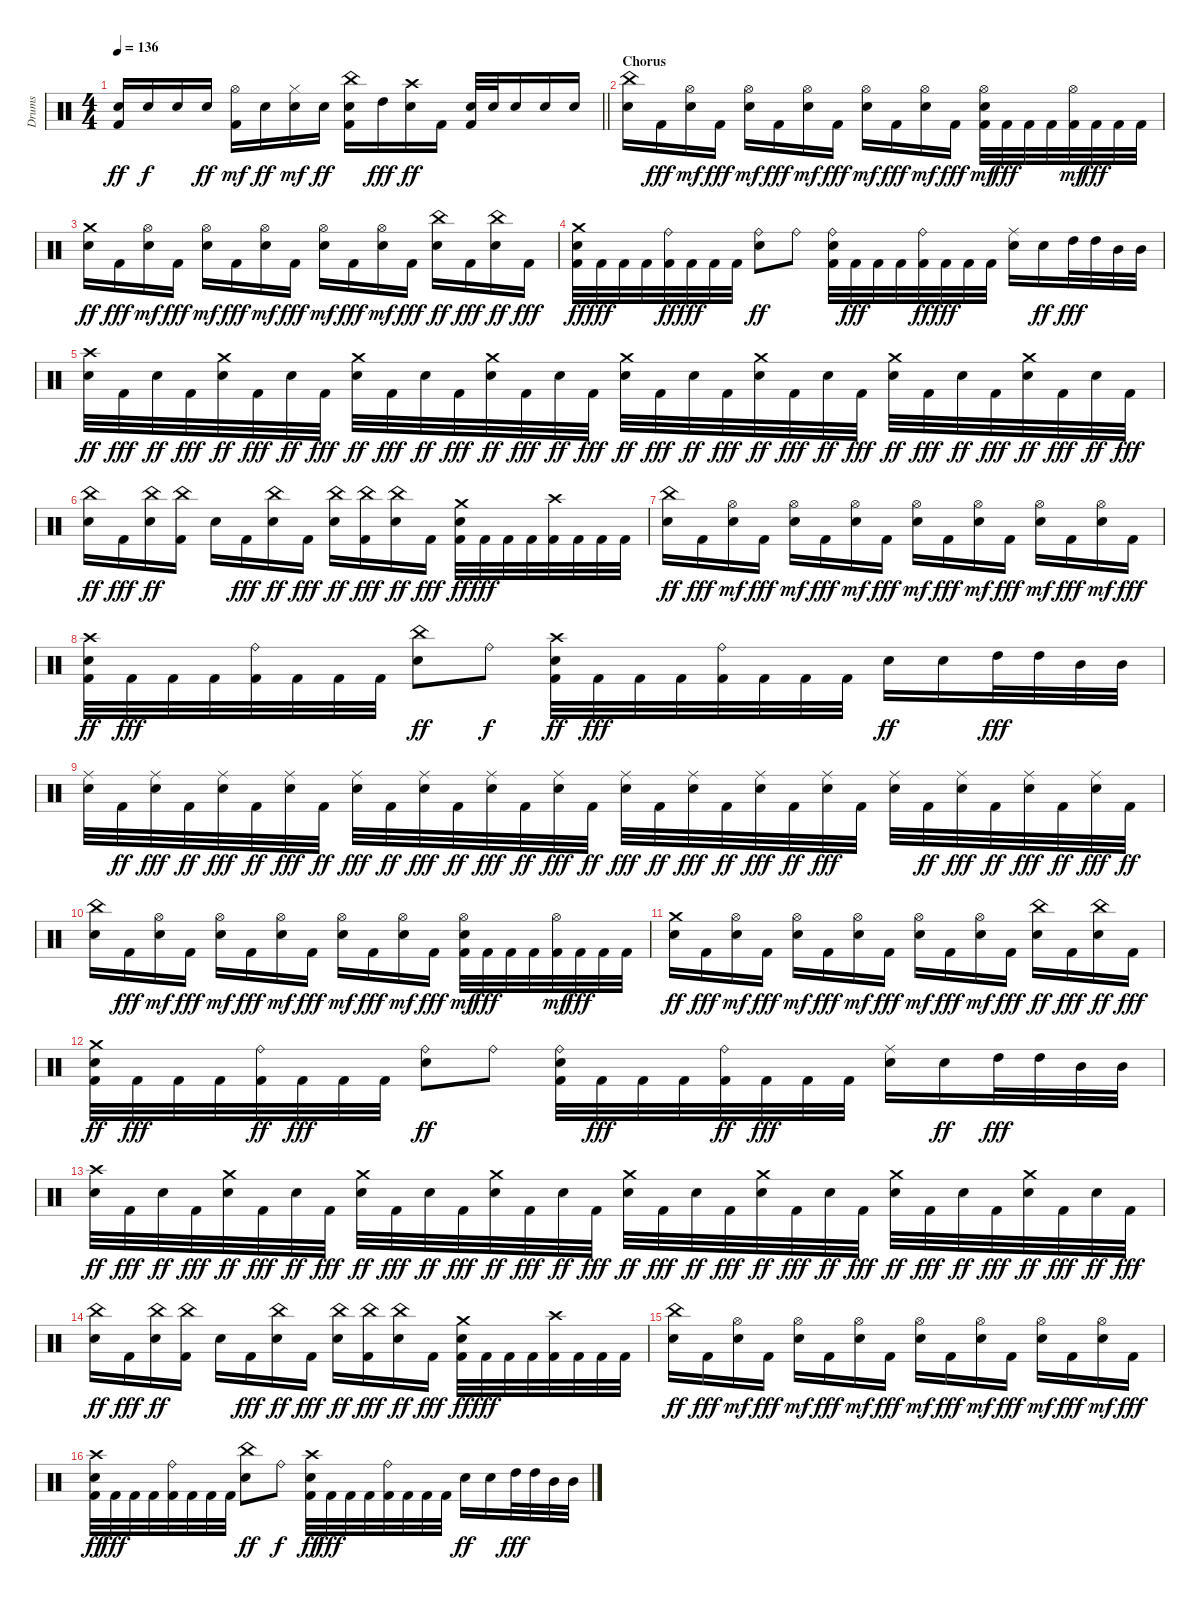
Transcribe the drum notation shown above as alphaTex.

\track ("Drums" "Drums") {instrument percussion}
\staff {score}
\articulation defaults
\ts (4 4)
\tempo 136
\clef neutral
\barLineRight lightlight
\ks c
("Kick (hit) 2" "Snare (hit) 2").16{dy ff} "Snare (hit) 2".16{dy f} "Snare (hit) 2".16 "Snare (hit) 2".16{dy ff} ("Kick (hit) 2" "Hi-Hat (open)").16{dy mf} "Snare (hit) 2".16{dy ff} ("Snare (hit) 2" "Hi-Hat (closed)").16{dy mf} "Snare (hit) 2".16{dy ff} ("Kick (hit) 2" "Snare (hit) 2" "China (hit)").16 "High Tom (hit)".16{dy fff} ("Snare (hit) 2" "Crash high (hit)").16{dy ff} "Kick (hit) 2".16 ("Kick (hit) 2" "Snare (hit) 2").32 "Snare (hit) 2".32 "Snare (hit) 2".16 "Snare (hit) 2".16 "Snare (hit) 2".16 |
\section ("" "Chorus")
("Snare (hit) 2" "China (hit)").16 "Kick (hit) 2".16{dy fff} ("Snare (hit) 2" "Hi-Hat (open)").16{dy mf} "Kick (hit) 2".16{dy fff} ("Snare (hit) 2" "Hi-Hat (open)").16{dy mf} "Kick (hit) 2".16{dy fff} ("Snare (hit) 2" "Hi-Hat (open)").16{dy mf} "Kick (hit) 2".16{dy fff} ("Snare (hit) 2" "Hi-Hat (open)").16{dy mf} "Kick (hit) 2".16{dy fff} ("Snare (hit) 2" "Hi-Hat (open)").16{dy mf} "Kick (hit) 2".16{dy fff} ("Kick (hit) 2" "Snare (hit) 2" "Hi-Hat (open)").32{dy mf} "Kick (hit) 2".32{dy fff} "Kick (hit) 2".32 "Kick (hit) 2".32 ("Kick (hit) 2" "Hi-Hat (open)").32{dy mf} "Kick (hit) 2".32{dy fff} "Kick (hit) 2".32 "Kick (hit) 2".32 |
("Snare (hit) 2" "Crash medium (hit)").16{dy ff} "Kick (hit) 2".16{dy fff} ("Snare (hit) 2" "Hi-Hat (open)").16{dy mf} "Kick (hit) 2".16{dy fff} ("Snare (hit) 2" "Hi-Hat (open)").16{dy mf} "Kick (hit) 2".16{dy fff} ("Snare (hit) 2" "Hi-Hat (open)").16{dy mf} "Kick (hit) 2".16{dy fff} ("Snare (hit) 2" "Hi-Hat (open)").16{dy mf} "Kick (hit) 2".16{dy fff} ("Snare (hit) 2" "Hi-Hat (open)").16{dy mf} "Kick (hit) 2".16{dy fff} ("Snare (hit) 2" "China (hit)").16{dy ff} "Kick (hit) 2".16{dy fff} ("Snare (hit) 2" "China (hit)").16{dy ff} "Kick (hit) 2".16{dy fff} |
("Kick (hit) 2" "Snare (hit) 2" "Crash medium (hit)").32{dy ff} "Kick (hit) 2".32{dy fff} "Kick (hit) 2".32 "Kick (hit) 2".32 ("Kick (hit) 2" "Ride (bell)").32{dy ff} "Kick (hit) 2".32{dy fff} "Kick (hit) 2".32 "Kick (hit) 2".32 ("Snare (hit) 2" "Ride (bell)").8{dy ff} "Ride (bell)".8 ("Kick (hit) 2" "Snare (hit) 2" "Ride (bell)").32 "Kick (hit) 2".32{dy fff} "Kick (hit) 2".32 "Kick (hit) 2".32 ("Kick (hit) 2" "Ride (bell)").32{dy ff} "Kick (hit) 2".32{dy fff} "Kick (hit) 2".32 "Kick (hit) 2".32 ("Snare (hit) 2" "Ride (middle)").16 "Snare (hit) 2".16{dy ff} "High Tom (hit)".32{dy fff} "High Tom (hit)".32 "Mid Tom (hit)".32 "Mid Tom (hit)".32 |
("Snare (hit) 2" "Crash high (hit)").32{dy ff} "Kick (hit) 2".32{dy fff} "Snare (hit) 2".32{dy ff} "Kick (hit) 2".32{dy fff} ("Snare (hit) 2" "Crash medium (hit)").32{dy ff} "Kick (hit) 2".32{dy fff} "Snare (hit) 2".32{dy ff} "Kick (hit) 2".32{dy fff} ("Snare (hit) 2" "Crash medium (hit)").32{dy ff} "Kick (hit) 2".32{dy fff} "Snare (hit) 2".32{dy ff} "Kick (hit) 2".32{dy fff} ("Snare (hit) 2" "Crash medium (hit)").32{dy ff} "Kick (hit) 2".32{dy fff} "Snare (hit) 2".32{dy ff} "Kick (hit) 2".32{dy fff} ("Snare (hit) 2" "Crash medium (hit)").32{dy ff} "Kick (hit) 2".32{dy fff} "Snare (hit) 2".32{dy ff} "Kick (hit) 2".32{dy fff} ("Snare (hit) 2" "Crash medium (hit)").32{dy ff} "Kick (hit) 2".32{dy fff} "Snare (hit) 2".32{dy ff} "Kick (hit) 2".32{dy fff} ("Snare (hit) 2" "Crash medium (hit)").32{dy ff} "Kick (hit) 2".32{dy fff} "Snare (hit) 2".32{dy ff} "Kick (hit) 2".32{dy fff} ("Snare (hit) 2" "Crash medium (hit)").32{dy ff} "Kick (hit) 2".32{dy fff} "Snare (hit) 2".32{dy ff} "Kick (hit) 2".32{dy fff} |
("Snare (hit) 2" "China (hit)").16{dy ff} "Kick (hit) 2".16{dy fff} ("Snare (hit) 2" "China (hit)").16{dy ff} ("Kick (hit) 2" "China (hit)").16 "Snare (hit) 2".16 "Kick (hit) 2".16{dy fff} ("Snare (hit) 2" "China (hit)").16{dy ff} "Kick (hit) 2".16{dy fff} ("Snare (hit) 2" "China (hit)").16{dy ff} ("Kick (hit) 2" "China (hit)").16{dy fff} ("Snare (hit) 2" "China (hit)").16{dy ff} "Kick (hit) 2".16{dy fff} ("Kick (hit) 2" "Snare (hit) 2" "Crash medium (hit)").32{dy ff} "Kick (hit) 2".32{dy fff} "Kick (hit) 2".32 "Kick (hit) 2".32 ("Kick (hit) 2" "Crash high (hit)").32 "Kick (hit) 2".32 "Kick (hit) 2".32 "Kick (hit) 2".32 |
("Snare (hit) 2" "China (hit)").16{dy ff} "Kick (hit) 2".16{dy fff} ("Snare (hit) 2" "Hi-Hat (open)").16{dy mf} "Kick (hit) 2".16{dy fff} ("Snare (hit) 2" "Hi-Hat (open)").16{dy mf} "Kick (hit) 2".16{dy fff} ("Snare (hit) 2" "Hi-Hat (open)").16{dy mf} "Kick (hit) 2".16{dy fff} ("Snare (hit) 2" "Hi-Hat (open)").16{dy mf} "Kick (hit) 2".16{dy fff} ("Snare (hit) 2" "Hi-Hat (open)").16{dy mf} "Kick (hit) 2".16{dy fff} ("Snare (hit) 2" "Hi-Hat (open)").16{dy mf} "Kick (hit) 2".16{dy fff} ("Snare (hit) 2" "Hi-Hat (open)").16{dy mf} "Kick (hit) 2".16{dy fff} |
("Kick (hit) 2" "Snare (hit) 2" "Crash high (hit)").32{dy ff} "Kick (hit) 2".32{dy fff} "Kick (hit) 2".32 "Kick (hit) 2".32 ("Kick (hit) 2" "Ride (bell)").32 "Kick (hit) 2".32 "Kick (hit) 2".32 "Kick (hit) 2".32 ("Snare (hit) 2" "China (hit)").8{dy ff} "Ride (bell)".8{dy f} ("Kick (hit) 2" "Snare (hit) 2" "Crash high (hit)").32{dy ff} "Kick (hit) 2".32{dy fff} "Kick (hit) 2".32 "Kick (hit) 2".32 ("Kick (hit) 2" "Ride (bell)").32 "Kick (hit) 2".32 "Kick (hit) 2".32 "Kick (hit) 2".32 "Snare (hit) 2".16{dy ff} "Snare (hit) 2".16 "High Tom (hit)".32{dy fff} "High Tom (hit)".32 "Mid Tom (hit)".32 "Mid Tom (hit)".32 |
("Snare (hit) 2" "Ride (middle)").32 "Kick (hit) 2".32{dy ff} ("Snare (hit) 2" "Ride (middle)").32{dy fff} "Kick (hit) 2".32{dy ff} ("Snare (hit) 2" "Ride (middle)").32{dy fff} "Kick (hit) 2".32{dy ff} ("Snare (hit) 2" "Ride (middle)").32{dy fff} "Kick (hit) 2".32{dy ff} ("Snare (hit) 2" "Ride (middle)").32{dy fff} "Kick (hit) 2".32{dy ff} ("Snare (hit) 2" "Ride (middle)").32{dy fff} "Kick (hit) 2".32{dy ff} ("Snare (hit) 2" "Ride (middle)").32{dy fff} "Kick (hit) 2".32{dy ff} ("Snare (hit) 2" "Ride (middle)").32{dy fff} "Kick (hit) 2".32{dy ff} ("Snare (hit) 2" "Ride (middle)").32{dy fff} "Kick (hit) 2".32{dy ff} ("Snare (hit) 2" "Ride (middle)").32{dy fff} "Kick (hit) 2".32{dy ff} ("Snare (hit) 2" "Ride (middle)").32{dy fff} "Kick (hit) 2".32{dy ff} ("Snare (hit) 2" "Ride (middle)").32{dy fff} "Kick (hit) 2".32 ("Snare (hit) 2" "Ride (middle)").32 "Kick (hit) 2".32{dy ff} ("Snare (hit) 2" "Ride (middle)").32{dy fff} "Kick (hit) 2".32{dy ff} ("Snare (hit) 2" "Ride (middle)").32{dy fff} "Kick (hit) 2".32{dy ff} ("Snare (hit) 2" "Ride (middle)").32{dy fff} "Kick (hit) 2".32{dy ff} |
("Snare (hit) 2" "China (hit)").16 "Kick (hit) 2".16{dy fff} ("Snare (hit) 2" "Hi-Hat (open)").16{dy mf} "Kick (hit) 2".16{dy fff} ("Snare (hit) 2" "Hi-Hat (open)").16{dy mf} "Kick (hit) 2".16{dy fff} ("Snare (hit) 2" "Hi-Hat (open)").16{dy mf} "Kick (hit) 2".16{dy fff} ("Snare (hit) 2" "Hi-Hat (open)").16{dy mf} "Kick (hit) 2".16{dy fff} ("Snare (hit) 2" "Hi-Hat (open)").16{dy mf} "Kick (hit) 2".16{dy fff} ("Kick (hit) 2" "Snare (hit) 2" "Hi-Hat (open)").32{dy mf} "Kick (hit) 2".32{dy fff} "Kick (hit) 2".32 "Kick (hit) 2".32 ("Kick (hit) 2" "Hi-Hat (open)").32{dy mf} "Kick (hit) 2".32{dy fff} "Kick (hit) 2".32 "Kick (hit) 2".32 |
("Snare (hit) 2" "Crash medium (hit)").16{dy ff} "Kick (hit) 2".16{dy fff} ("Snare (hit) 2" "Hi-Hat (open)").16{dy mf} "Kick (hit) 2".16{dy fff} ("Snare (hit) 2" "Hi-Hat (open)").16{dy mf} "Kick (hit) 2".16{dy fff} ("Snare (hit) 2" "Hi-Hat (open)").16{dy mf} "Kick (hit) 2".16{dy fff} ("Snare (hit) 2" "Hi-Hat (open)").16{dy mf} "Kick (hit) 2".16{dy fff} ("Snare (hit) 2" "Hi-Hat (open)").16{dy mf} "Kick (hit) 2".16{dy fff} ("Snare (hit) 2" "China (hit)").16{dy ff} "Kick (hit) 2".16{dy fff} ("Snare (hit) 2" "China (hit)").16{dy ff} "Kick (hit) 2".16{dy fff} |
("Kick (hit) 2" "Snare (hit) 2" "Crash medium (hit)").32{dy ff} "Kick (hit) 2".32{dy fff} "Kick (hit) 2".32 "Kick (hit) 2".32 ("Kick (hit) 2" "Ride (bell)").32{dy ff} "Kick (hit) 2".32{dy fff} "Kick (hit) 2".32 "Kick (hit) 2".32 ("Snare (hit) 2" "Ride (bell)").8{dy ff} "Ride (bell)".8 ("Kick (hit) 2" "Snare (hit) 2" "Ride (bell)").32 "Kick (hit) 2".32{dy fff} "Kick (hit) 2".32 "Kick (hit) 2".32 ("Kick (hit) 2" "Ride (bell)").32{dy ff} "Kick (hit) 2".32{dy fff} "Kick (hit) 2".32 "Kick (hit) 2".32 ("Snare (hit) 2" "Ride (middle)").16 "Snare (hit) 2".16{dy ff} "High Tom (hit)".32{dy fff} "High Tom (hit)".32 "Mid Tom (hit)".32 "Mid Tom (hit)".32 |
("Snare (hit) 2" "Crash high (hit)").32{dy ff} "Kick (hit) 2".32{dy fff} "Snare (hit) 2".32{dy ff} "Kick (hit) 2".32{dy fff} ("Snare (hit) 2" "Crash medium (hit)").32{dy ff} "Kick (hit) 2".32{dy fff} "Snare (hit) 2".32{dy ff} "Kick (hit) 2".32{dy fff} ("Snare (hit) 2" "Crash medium (hit)").32{dy ff} "Kick (hit) 2".32{dy fff} "Snare (hit) 2".32{dy ff} "Kick (hit) 2".32{dy fff} ("Snare (hit) 2" "Crash medium (hit)").32{dy ff} "Kick (hit) 2".32{dy fff} "Snare (hit) 2".32{dy ff} "Kick (hit) 2".32{dy fff} ("Snare (hit) 2" "Crash medium (hit)").32{dy ff} "Kick (hit) 2".32{dy fff} "Snare (hit) 2".32{dy ff} "Kick (hit) 2".32{dy fff} ("Snare (hit) 2" "Crash medium (hit)").32{dy ff} "Kick (hit) 2".32{dy fff} "Snare (hit) 2".32{dy ff} "Kick (hit) 2".32{dy fff} ("Snare (hit) 2" "Crash medium (hit)").32{dy ff} "Kick (hit) 2".32{dy fff} "Snare (hit) 2".32{dy ff} "Kick (hit) 2".32{dy fff} ("Snare (hit) 2" "Crash medium (hit)").32{dy ff} "Kick (hit) 2".32{dy fff} "Snare (hit) 2".32{dy ff} "Kick (hit) 2".32{dy fff} |
("Snare (hit) 2" "China (hit)").16{dy ff} "Kick (hit) 2".16{dy fff} ("Snare (hit) 2" "China (hit)").16{dy ff} ("Kick (hit) 2" "China (hit)").16 "Snare (hit) 2".16 "Kick (hit) 2".16{dy fff} ("Snare (hit) 2" "China (hit)").16{dy ff} "Kick (hit) 2".16{dy fff} ("Snare (hit) 2" "China (hit)").16{dy ff} ("Kick (hit) 2" "China (hit)").16{dy fff} ("Snare (hit) 2" "China (hit)").16{dy ff} "Kick (hit) 2".16{dy fff} ("Kick (hit) 2" "Snare (hit) 2" "Crash medium (hit)").32{dy ff} "Kick (hit) 2".32{dy fff} "Kick (hit) 2".32 "Kick (hit) 2".32 ("Kick (hit) 2" "Crash high (hit)").32 "Kick (hit) 2".32 "Kick (hit) 2".32 "Kick (hit) 2".32 |
("Snare (hit) 2" "China (hit)").16{dy ff} "Kick (hit) 2".16{dy fff} ("Snare (hit) 2" "Hi-Hat (open)").16{dy mf} "Kick (hit) 2".16{dy fff} ("Snare (hit) 2" "Hi-Hat (open)").16{dy mf} "Kick (hit) 2".16{dy fff} ("Snare (hit) 2" "Hi-Hat (open)").16{dy mf} "Kick (hit) 2".16{dy fff} ("Snare (hit) 2" "Hi-Hat (open)").16{dy mf} "Kick (hit) 2".16{dy fff} ("Snare (hit) 2" "Hi-Hat (open)").16{dy mf} "Kick (hit) 2".16{dy fff} ("Snare (hit) 2" "Hi-Hat (open)").16{dy mf} "Kick (hit) 2".16{dy fff} ("Snare (hit) 2" "Hi-Hat (open)").16{dy mf} "Kick (hit) 2".16{dy fff} |
("Kick (hit) 2" "Snare (hit) 2" "Crash high (hit)").32{dy ff} "Kick (hit) 2".32{dy fff} "Kick (hit) 2".32 "Kick (hit) 2".32 ("Kick (hit) 2" "Ride (bell)").32 "Kick (hit) 2".32 "Kick (hit) 2".32 "Kick (hit) 2".32 ("Snare (hit) 2" "China (hit)").8{dy ff} "Ride (bell)".8{dy f} ("Kick (hit) 2" "Snare (hit) 2" "Crash high (hit)").32{dy ff} "Kick (hit) 2".32{dy fff} "Kick (hit) 2".32 "Kick (hit) 2".32 ("Kick (hit) 2" "Ride (bell)").32 "Kick (hit) 2".32 "Kick (hit) 2".32 "Kick (hit) 2".32 "Snare (hit) 2".16{dy ff} "Snare (hit) 2".16 "High Tom (hit)".32{dy fff} "High Tom (hit)".32 "Mid Tom (hit)".32 "Mid Tom (hit)".32
